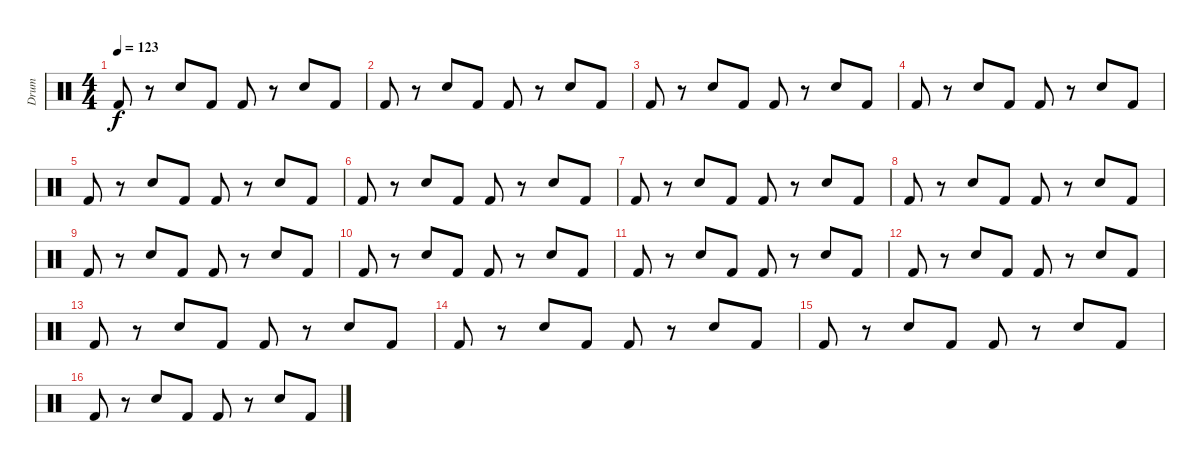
\track ("Drum" "Drum") {instrument percussion}
\staff {score}
\articulation defaults
\ts (4 4)
\tempo 123
\clef neutral
\ks c "Kick (hit) 2".8{dy f}
r.8 "Electric Snare (hit)".8 "Kick (hit) 2".8 "Kick (hit) 2".8 r.8 "Electric Snare (hit)".8 "Kick (hit) 2".8 |
"Kick (hit) 2".8 r.8 "Electric Snare (hit)".8 "Kick (hit) 2".8 "Kick (hit) 2".8 r.8 "Electric Snare (hit)".8 "Kick (hit) 2".8 |
"Kick (hit) 2".8 r.8 "Electric Snare (hit)".8 "Kick (hit) 2".8 "Kick (hit) 2".8 r.8 "Electric Snare (hit)".8 "Kick (hit) 2".8 |
"Kick (hit) 2".8 r.8 "Electric Snare (hit)".8 "Kick (hit) 2".8 "Kick (hit) 2".8 r.8 "Electric Snare (hit)".8 "Kick (hit) 2".8 |
"Kick (hit) 2".8 r.8 "Electric Snare (hit)".8 "Kick (hit) 2".8 "Kick (hit) 2".8 r.8 "Electric Snare (hit)".8 "Kick (hit) 2".8 |
"Kick (hit) 2".8 r.8 "Electric Snare (hit)".8 "Kick (hit) 2".8 "Kick (hit) 2".8 r.8 "Electric Snare (hit)".8 "Kick (hit) 2".8 |
"Kick (hit) 2".8 r.8 "Electric Snare (hit)".8 "Kick (hit) 2".8 "Kick (hit) 2".8 r.8 "Electric Snare (hit)".8 "Kick (hit) 2".8 |
"Kick (hit) 2".8 r.8 "Electric Snare (hit)".8 "Kick (hit) 2".8 "Kick (hit) 2".8 r.8 "Electric Snare (hit)".8 "Kick (hit) 2".8 |
"Kick (hit) 2".8 r.8 "Electric Snare (hit)".8 "Kick (hit) 2".8 "Kick (hit) 2".8 r.8 "Electric Snare (hit)".8 "Kick (hit) 2".8 |
"Kick (hit) 2".8 r.8 "Electric Snare (hit)".8 "Kick (hit) 2".8 "Kick (hit) 2".8 r.8 "Electric Snare (hit)".8 "Kick (hit) 2".8 |
"Kick (hit) 2".8 r.8 "Electric Snare (hit)".8 "Kick (hit) 2".8 "Kick (hit) 2".8 r.8 "Electric Snare (hit)".8 "Kick (hit) 2".8 |
"Kick (hit) 2".8 r.8 "Electric Snare (hit)".8 "Kick (hit) 2".8 "Kick (hit) 2".8 r.8 "Electric Snare (hit)".8 "Kick (hit) 2".8 |
"Kick (hit) 2".8 r.8 "Electric Snare (hit)".8 "Kick (hit) 2".8 "Kick (hit) 2".8 r.8 "Electric Snare (hit)".8 "Kick (hit) 2".8 |
"Kick (hit) 2".8 r.8 "Electric Snare (hit)".8 "Kick (hit) 2".8 "Kick (hit) 2".8 r.8 "Electric Snare (hit)".8 "Kick (hit) 2".8 |
"Kick (hit) 2".8 r.8 "Electric Snare (hit)".8 "Kick (hit) 2".8 "Kick (hit) 2".8 r.8 "Electric Snare (hit)".8 "Kick (hit) 2".8 |
"Kick (hit) 2".8 r.8 "Electric Snare (hit)".8 "Kick (hit) 2".8 "Kick (hit) 2".8 r.8 "Electric Snare (hit)".8 "Kick (hit) 2".8
